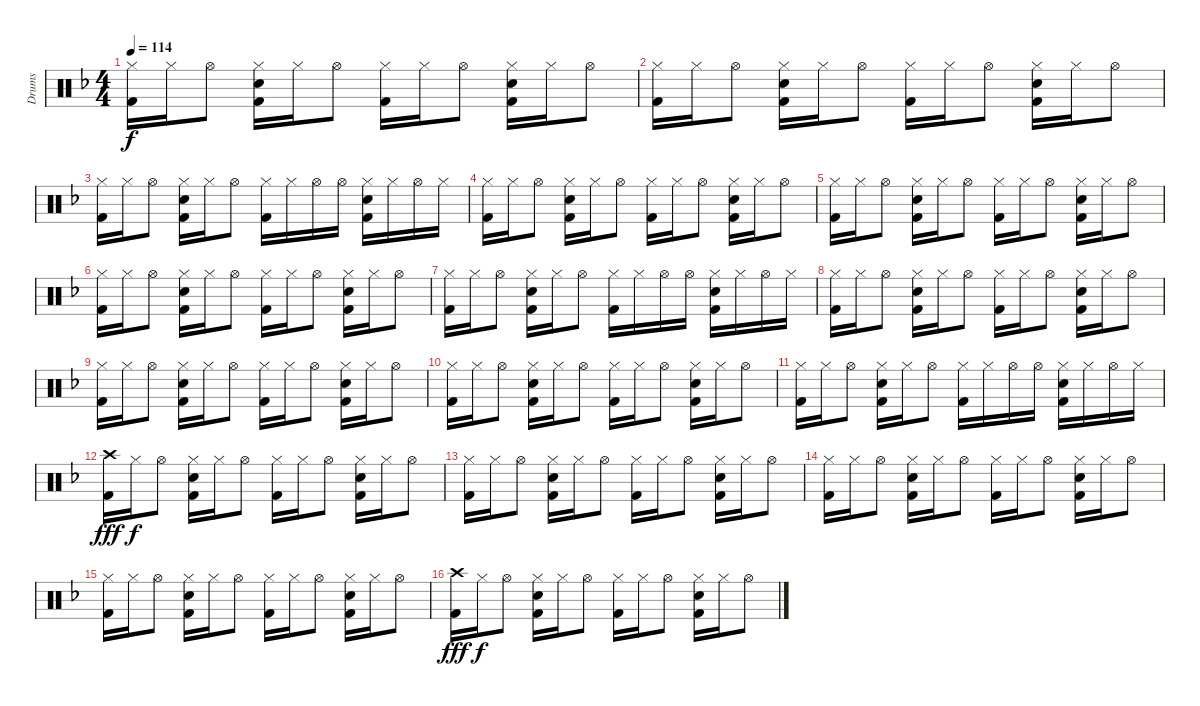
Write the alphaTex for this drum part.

\track ("Drums" "Drums") {instrument percussion}
\staff {score}
\articulation defaults
\ts (4 4)
\tempo 114
\clef neutral
\ks f
("Hi-Hat (closed)" "Kick (hit) 2").16{dy f} "Hi-Hat (closed)".16 "Hi-Hat (open)".8 ("Hi-Hat (closed)" "Electric Snare (hit)" "Kick (hit) 2").16 "Hi-Hat (closed)".16 "Hi-Hat (open)".8 ("Hi-Hat (closed)" "Kick (hit) 2").16 "Hi-Hat (closed)".16 "Hi-Hat (open)".8 ("Hi-Hat (closed)" "Electric Snare (hit)" "Kick (hit) 2").16 "Hi-Hat (closed)".16 "Hi-Hat (open)".8 |
("Hi-Hat (closed)" "Kick (hit) 2").16 "Hi-Hat (closed)".16 "Hi-Hat (open)".8 ("Hi-Hat (closed)" "Electric Snare (hit)" "Kick (hit) 2").16 "Hi-Hat (closed)".16 "Hi-Hat (open)".8 ("Hi-Hat (closed)" "Kick (hit) 2").16 "Hi-Hat (closed)".16 "Hi-Hat (open)".8 ("Hi-Hat (closed)" "Electric Snare (hit)" "Kick (hit) 2").16 "Hi-Hat (closed)".16 "Hi-Hat (open)".8 |
("Hi-Hat (closed)" "Kick (hit) 2").16 "Hi-Hat (closed)".16 "Hi-Hat (open)".8 ("Hi-Hat (closed)" "Electric Snare (hit)" "Kick (hit) 2").16 "Hi-Hat (closed)".16 "Hi-Hat (open)".8 ("Hi-Hat (closed)" "Kick (hit) 2").16 "Hi-Hat (closed)".16 "Hi-Hat (open)".16 "Hi-Hat (open)".16 ("Hi-Hat (closed)" "Electric Snare (hit)" "Kick (hit) 2").16 "Hi-Hat (closed)".16 "Hi-Hat (open)".16 "Hi-Hat (closed)".16 |
("Hi-Hat (closed)" "Kick (hit) 2").16 "Hi-Hat (closed)".16 "Hi-Hat (open)".8 ("Hi-Hat (closed)" "Electric Snare (hit)" "Kick (hit) 2").16 "Hi-Hat (closed)".16 "Hi-Hat (open)".8 ("Hi-Hat (closed)" "Kick (hit) 2").16 "Hi-Hat (closed)".16 "Hi-Hat (open)".8 ("Hi-Hat (closed)" "Electric Snare (hit)" "Kick (hit) 2").16 "Hi-Hat (closed)".16 "Hi-Hat (open)".8 |
("Hi-Hat (closed)" "Kick (hit) 2").16 "Hi-Hat (closed)".16 "Hi-Hat (open)".8 ("Hi-Hat (closed)" "Electric Snare (hit)" "Kick (hit) 2").16 "Hi-Hat (closed)".16 "Hi-Hat (open)".8 ("Hi-Hat (closed)" "Kick (hit) 2").16 "Hi-Hat (closed)".16 "Hi-Hat (open)".8 ("Hi-Hat (closed)" "Electric Snare (hit)" "Kick (hit) 2").16 "Hi-Hat (closed)".16 "Hi-Hat (open)".8 |
("Hi-Hat (closed)" "Kick (hit) 2").16 "Hi-Hat (closed)".16 "Hi-Hat (open)".8 ("Hi-Hat (closed)" "Electric Snare (hit)" "Kick (hit) 2").16 "Hi-Hat (closed)".16 "Hi-Hat (open)".8 ("Hi-Hat (closed)" "Kick (hit) 2").16 "Hi-Hat (closed)".16 "Hi-Hat (open)".8 ("Hi-Hat (closed)" "Electric Snare (hit)" "Kick (hit) 2").16 "Hi-Hat (closed)".16 "Hi-Hat (open)".8 |
("Hi-Hat (closed)" "Kick (hit) 2").16 "Hi-Hat (closed)".16 "Hi-Hat (open)".8 ("Hi-Hat (closed)" "Electric Snare (hit)" "Kick (hit) 2").16 "Hi-Hat (closed)".16 "Hi-Hat (open)".8 ("Hi-Hat (closed)" "Kick (hit) 2").16 "Hi-Hat (closed)".16 "Hi-Hat (open)".16 "Hi-Hat (open)".16 ("Hi-Hat (closed)" "Electric Snare (hit)" "Kick (hit) 2").16 "Hi-Hat (closed)".16 "Hi-Hat (open)".16 "Hi-Hat (closed)".16 |
("Hi-Hat (closed)" "Kick (hit) 2").16 "Hi-Hat (closed)".16 "Hi-Hat (open)".8 ("Hi-Hat (closed)" "Electric Snare (hit)" "Kick (hit) 2").16 "Hi-Hat (closed)".16 "Hi-Hat (open)".8 ("Hi-Hat (closed)" "Kick (hit) 2").16 "Hi-Hat (closed)".16 "Hi-Hat (open)".8 ("Hi-Hat (closed)" "Electric Snare (hit)" "Kick (hit) 2").16 "Hi-Hat (closed)".16 "Hi-Hat (open)".8 |
("Hi-Hat (closed)" "Kick (hit) 2").16 "Hi-Hat (closed)".16 "Hi-Hat (open)".8 ("Hi-Hat (closed)" "Electric Snare (hit)" "Kick (hit) 2").16 "Hi-Hat (closed)".16 "Hi-Hat (open)".8 ("Hi-Hat (closed)" "Kick (hit) 2").16 "Hi-Hat (closed)".16 "Hi-Hat (open)".8 ("Hi-Hat (closed)" "Electric Snare (hit)" "Kick (hit) 2").16 "Hi-Hat (closed)".16 "Hi-Hat (open)".8 |
("Hi-Hat (closed)" "Kick (hit) 2").16 "Hi-Hat (closed)".16 "Hi-Hat (open)".8 ("Hi-Hat (closed)" "Electric Snare (hit)" "Kick (hit) 2").16 "Hi-Hat (closed)".16 "Hi-Hat (open)".8 ("Hi-Hat (closed)" "Kick (hit) 2").16 "Hi-Hat (closed)".16 "Hi-Hat (open)".8 ("Hi-Hat (closed)" "Electric Snare (hit)" "Kick (hit) 2").16 "Hi-Hat (closed)".16 "Hi-Hat (open)".8 |
("Hi-Hat (closed)" "Kick (hit) 2").16 "Hi-Hat (closed)".16 "Hi-Hat (open)".8 ("Hi-Hat (closed)" "Electric Snare (hit)" "Kick (hit) 2").16 "Hi-Hat (closed)".16 "Hi-Hat (open)".8 ("Hi-Hat (closed)" "Kick (hit) 2").16 "Hi-Hat (closed)".16 "Hi-Hat (open)".16 "Hi-Hat (open)".16 ("Hi-Hat (closed)" "Electric Snare (hit)" "Kick (hit) 2").16 "Hi-Hat (closed)".16 "Hi-Hat (open)".16 "Hi-Hat (closed)".16 |
("Crash high (hit)" "Kick (hit) 2").16{dy fff} "Hi-Hat (closed)".16{dy f} "Hi-Hat (open)".8 ("Hi-Hat (closed)" "Electric Snare (hit)" "Kick (hit) 2").16 "Hi-Hat (closed)".16 "Hi-Hat (open)".8 ("Hi-Hat (closed)" "Kick (hit) 2").16 "Hi-Hat (closed)".16 "Hi-Hat (open)".8 ("Hi-Hat (closed)" "Electric Snare (hit)" "Kick (hit) 2").16 "Hi-Hat (closed)".16 "Hi-Hat (open)".8 |
("Hi-Hat (closed)" "Kick (hit) 2").16 "Hi-Hat (closed)".16 "Hi-Hat (open)".8 ("Hi-Hat (closed)" "Electric Snare (hit)" "Kick (hit) 2").16 "Hi-Hat (closed)".16 "Hi-Hat (open)".8 ("Hi-Hat (closed)" "Kick (hit) 2").16 "Hi-Hat (closed)".16 "Hi-Hat (open)".8 ("Hi-Hat (closed)" "Electric Snare (hit)" "Kick (hit) 2").16 "Hi-Hat (closed)".16 "Hi-Hat (open)".8 |
("Hi-Hat (closed)" "Kick (hit) 2").16 "Hi-Hat (closed)".16 "Hi-Hat (open)".8 ("Hi-Hat (closed)" "Electric Snare (hit)" "Kick (hit) 2").16 "Hi-Hat (closed)".16 "Hi-Hat (open)".8 ("Hi-Hat (closed)" "Kick (hit) 2").16 "Hi-Hat (closed)".16 "Hi-Hat (open)".8 ("Hi-Hat (closed)" "Electric Snare (hit)" "Kick (hit) 2").16 "Hi-Hat (closed)".16 "Hi-Hat (open)".8 |
("Hi-Hat (closed)" "Kick (hit) 2").16 "Hi-Hat (closed)".16 "Hi-Hat (open)".8 ("Hi-Hat (closed)" "Electric Snare (hit)" "Kick (hit) 2").16 "Hi-Hat (closed)".16 "Hi-Hat (open)".8 ("Hi-Hat (closed)" "Kick (hit) 2").16 "Hi-Hat (closed)".16 "Hi-Hat (open)".8 ("Hi-Hat (closed)" "Electric Snare (hit)" "Kick (hit) 2").16 "Hi-Hat (closed)".16 "Hi-Hat (open)".8 |
("Crash high (hit)" "Kick (hit) 2").16{dy fff} "Hi-Hat (closed)".16{dy f} "Hi-Hat (open)".8 ("Hi-Hat (closed)" "Electric Snare (hit)" "Kick (hit) 2").16 "Hi-Hat (closed)".16 "Hi-Hat (open)".8 ("Hi-Hat (closed)" "Kick (hit) 2").16 "Hi-Hat (closed)".16 "Hi-Hat (open)".8 ("Hi-Hat (closed)" "Electric Snare (hit)" "Kick (hit) 2").16 "Hi-Hat (closed)".16 "Hi-Hat (open)".8
